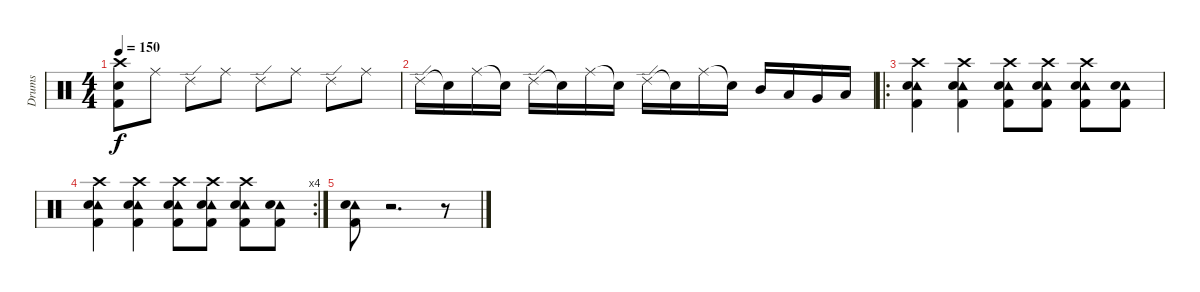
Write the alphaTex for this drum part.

\track ("Drums" "Drums") {instrument percussion}
\staff {score}
\articulation defaults
\ts (4 4)
\tempo 150
\clef neutral
\ks c
("Crash high (hit)" "Snare (hit) 2" "Kick (hit) 2").8{dy f} "Ride (middle)".8 "Ride (edge) 2".8 "Ride (middle)".8 "Ride (edge) 2".8 "Ride (middle)".8 "Ride (edge) 2".8 "Ride (middle)".8 |
"Ride (edge) 2".16 "Snare (hit)"{t}.16 "Ride (middle)".16 "Snare (hit)"{t}.16 "Ride (edge) 2".16 "Snare (hit)"{t}.16 "Ride (middle)".16 "Snare (hit)"{t}.16 "Ride (edge) 2".16 "Snare (hit)"{t}.16 "Ride (middle)".16 "Snare (hit)"{t}.16 "Mid Tom (hit)".16 "Low Tom (hit)".16 "Very Low Tom (hit)".16 "Low Floor Tom (hit)".16 |
\ro
("Tambourine (hit)" "Crash high (hit)" "Snare (hit) 2" "Kick (hit) 2").4 ("Tambourine (hit)" "Crash high (hit)" "Snare (hit) 2" "Kick (hit) 2").4 ("Tambourine (hit)" "Crash high (hit)" "Snare (hit) 2" "Kick (hit) 2").8 ("Tambourine (hit)" "Crash high (hit)" "Snare (hit) 2" "Kick (hit) 2").8 ("Tambourine (hit)" "Crash high (hit)" "Snare (hit) 2" "Kick (hit) 2").8 ("Tambourine (hit)" "Snare (hit) 2" "Kick (hit) 2").8 |
\rc 4
("Tambourine (hit)" "Crash high (hit)" "Snare (hit) 2" "Kick (hit) 2").4 ("Tambourine (hit)" "Crash high (hit)" "Snare (hit) 2" "Kick (hit) 2").4 ("Tambourine (hit)" "Crash high (hit)" "Snare (hit) 2" "Kick (hit) 2").8 ("Tambourine (hit)" "Crash high (hit)" "Snare (hit) 2" "Kick (hit) 2").8 ("Tambourine (hit)" "Crash high (hit)" "Snare (hit) 2" "Kick (hit) 2").8 ("Tambourine (hit)" "Snare (hit) 2" "Kick (hit) 2").8 |
("Tambourine (hit)" "Snare (hit) 2" "Kick (hit) 2").8 r.2{d} r.8
